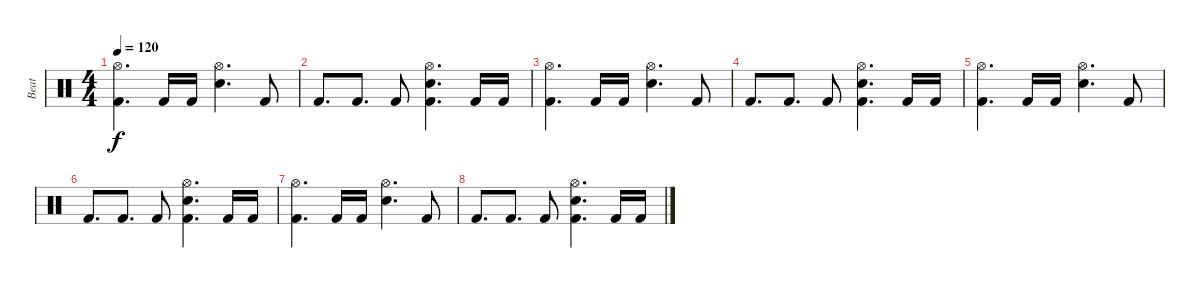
\track ("Beat" "Beat") {instrument percussion}
\staff {score}
\articulation defaults
\ts (4 4)
\tempo 120
\clef neutral
\ks c
("Hi-Hat (open)" "Kick (hit) 2").4{d dy f} "Kick (hit) 2".16 "Kick (hit) 2".16 ("Hi-Hat (open)" "Snare (hit) 2").4{d} "Kick (hit) 2".8 |
"Kick (hit) 2".8{d} "Kick (hit) 2".8{d} "Kick (hit) 2".8 ("Hi-Hat (open)" "Kick (hit) 2" "Snare (hit) 2").4{d} "Kick (hit) 2".16 "Kick (hit) 2".16 |
("Hi-Hat (open)" "Kick (hit) 2").4{d} "Kick (hit) 2".16 "Kick (hit) 2".16 ("Hi-Hat (open)" "Snare (hit) 2").4{d} "Kick (hit) 2".8 |
"Kick (hit) 2".8{d} "Kick (hit) 2".8{d} "Kick (hit) 2".8 ("Hi-Hat (open)" "Kick (hit) 2" "Snare (hit) 2").4{d} "Kick (hit) 2".16 "Kick (hit) 2".16 |
("Hi-Hat (open)" "Kick (hit) 2").4{d} "Kick (hit) 2".16 "Kick (hit) 2".16 ("Hi-Hat (open)" "Snare (hit) 2").4{d} "Kick (hit) 2".8 |
"Kick (hit) 2".8{d} "Kick (hit) 2".8{d} "Kick (hit) 2".8 ("Hi-Hat (open)" "Kick (hit) 2" "Snare (hit) 2").4{d} "Kick (hit) 2".16 "Kick (hit) 2".16 |
("Hi-Hat (open)" "Kick (hit) 2").4{d} "Kick (hit) 2".16 "Kick (hit) 2".16 ("Hi-Hat (open)" "Snare (hit) 2").4{d} "Kick (hit) 2".8 |
"Kick (hit) 2".8{d} "Kick (hit) 2".8{d} "Kick (hit) 2".8 ("Hi-Hat (open)" "Kick (hit) 2" "Snare (hit) 2").4{d} "Kick (hit) 2".16 "Kick (hit) 2".16
